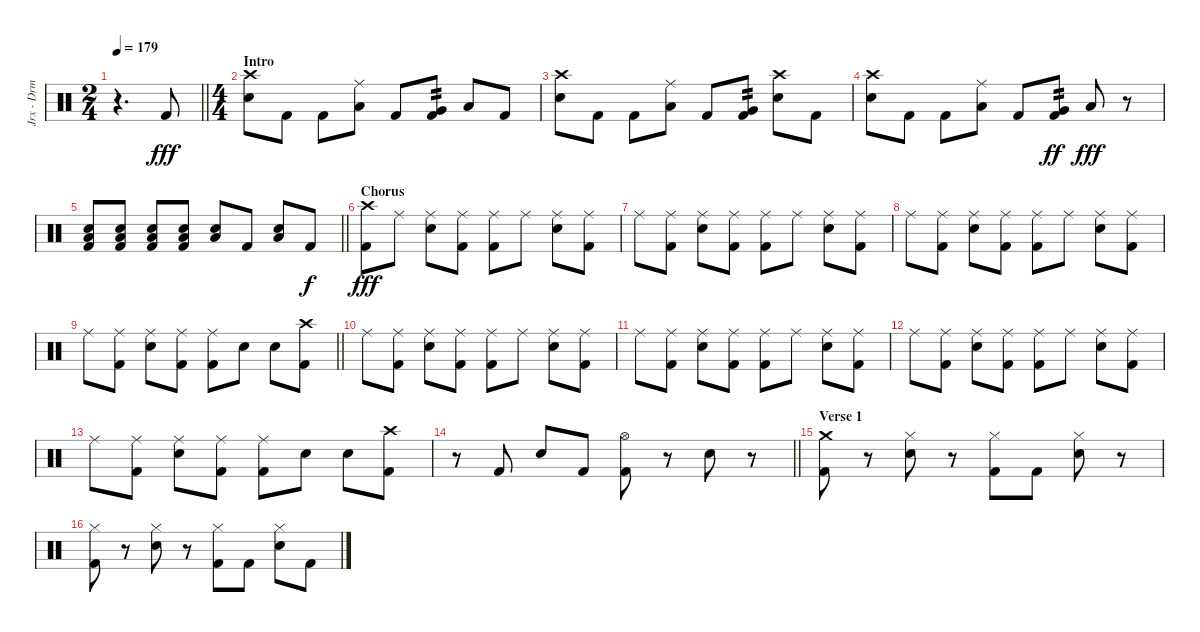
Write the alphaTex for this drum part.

\track ("Jrx - Drm" "Jrx - Drm") {instrument percussion}
\staff {score}
\articulation defaults
\ts (2 4)
\tempo 179
\clef neutral
\barLineRight lightlight
\ks c
r.4{d dy fff} "Kick (hit) 2".8 |
\ts (4 4)
\section ("" "Intro")
("Snare (hit) 2" "Crash high (hit)").8 "Kick (hit) 2".8 "Kick (hit) 2".8 ("Low Tom (hit)" "Ride (middle)").8 "Kick (hit) 2".8 ("Kick (hit) 2" "Very Low Tom (hit)").8{tp 2} "Low Floor Tom (hit)".8 "Kick (hit) 2".8 |
("Snare (hit) 2" "Crash high (hit)").8 "Kick (hit) 2".8 "Kick (hit) 2".8 ("Low Tom (hit)" "Ride (middle)").8 "Kick (hit) 2".8 ("Kick (hit) 2" "Very Low Tom (hit)").8{tp 2} ("Snare (hit) 2" "Crash high (hit)").8 "Kick (hit) 2".8 |
("Snare (hit) 2" "Crash high (hit)").8 "Kick (hit) 2".8 "Kick (hit) 2".8 ("Low Tom (hit)" "Ride (middle)").8 "Kick (hit) 2".8 ("Kick (hit) 2" "Very Low Tom (hit)").8{tp 2 dy ff} "Low Floor Tom (hit)".8{dy fff} r.8 |
\barLineRight lightlight
("Snare (hit) 2" "Kick (hit) 2" "Low Floor Tom (hit)").8 ("Snare (hit) 2" "Kick (hit) 2" "Low Floor Tom (hit)").8 ("Snare (hit) 2" "Kick (hit) 2" "Low Floor Tom (hit)").8 ("Snare (hit) 2" "Kick (hit) 2" "Low Floor Tom (hit)").8 ("Snare (hit) 2" "Low Floor Tom (hit)").8 "Kick (hit) 2".8 ("Snare (hit) 2" "Low Floor Tom (hit)").8 "Kick (hit) 2".8{dy f} |
\section ("" "Chorus")
("Kick (hit) 2" "Crash high (hit)").8{dy fff} "Ride (middle)".8 ("Snare (hit) 2" "Ride (middle)").8 ("Kick (hit) 2" "Ride (middle)").8 ("Kick (hit) 2" "Ride (middle)").8 "Ride (middle)".8 ("Snare (hit) 2" "Ride (middle)").8 ("Kick (hit) 2" "Ride (middle)").8 |
"Ride (middle)".8 ("Kick (hit) 2" "Ride (middle)").8 ("Snare (hit) 2" "Ride (middle)").8 ("Kick (hit) 2" "Ride (middle)").8 ("Kick (hit) 2" "Ride (middle)").8 "Ride (middle)".8 ("Snare (hit) 2" "Ride (middle)").8 ("Kick (hit) 2" "Ride (middle)").8 |
"Ride (middle)".8 ("Kick (hit) 2" "Ride (middle)").8 ("Snare (hit) 2" "Ride (middle)").8 ("Kick (hit) 2" "Ride (middle)").8 ("Kick (hit) 2" "Ride (middle)").8 "Ride (middle)".8 ("Snare (hit) 2" "Ride (middle)").8 ("Kick (hit) 2" "Ride (middle)").8 |
\barLineRight lightlight "Ride (middle)".8
("Kick (hit) 2" "Ride (middle)").8 ("Snare (hit) 2" "Ride (middle)").8 ("Kick (hit) 2" "Ride (middle)").8 ("Kick (hit) 2" "Ride (middle)").8 "Snare (hit) 2".8 "Snare (hit) 2".8 ("Kick (hit) 2" "Crash high (hit)").8 |
"Ride (middle)".8 ("Kick (hit) 2" "Ride (middle)").8 ("Snare (hit) 2" "Ride (middle)").8 ("Kick (hit) 2" "Ride (middle)").8 ("Kick (hit) 2" "Ride (middle)").8 "Ride (middle)".8 ("Snare (hit) 2" "Ride (middle)").8 ("Kick (hit) 2" "Ride (middle)").8 |
"Ride (middle)".8 ("Kick (hit) 2" "Ride (middle)").8 ("Snare (hit) 2" "Ride (middle)").8 ("Kick (hit) 2" "Ride (middle)").8 ("Kick (hit) 2" "Ride (middle)").8 "Ride (middle)".8 ("Snare (hit) 2" "Ride (middle)").8 ("Kick (hit) 2" "Ride (middle)").8 |
"Ride (middle)".8 ("Kick (hit) 2" "Ride (middle)").8 ("Snare (hit) 2" "Ride (middle)").8 ("Kick (hit) 2" "Ride (middle)").8 ("Kick (hit) 2" "Ride (middle)").8 "Ride (middle)".8 ("Snare (hit) 2" "Ride (middle)").8 ("Kick (hit) 2" "Ride (middle)").8 |
"Ride (middle)".8 ("Kick (hit) 2" "Ride (middle)").8 ("Snare (hit) 2" "Ride (middle)").8 ("Kick (hit) 2" "Ride (middle)").8 ("Kick (hit) 2" "Ride (middle)").8 "Snare (hit) 2".8 "Snare (hit) 2".8 ("Kick (hit) 2" "Crash high (hit)").8 |
\barLineRight lightlight
r.8 "Kick (hit) 2".8 "Snare (hit) 2".8 "Kick (hit) 2".8 ("Hi-Hat (open)" "Kick (hit) 2").8 r.8 "Snare (hit) 2".8 r.8 |
\section ("" "Verse 1")
("Kick (hit) 2" "Crash medium (hit)").8 r.8 ("Hi-Hat (closed)" "Snare (hit) 2").8 r.8 ("Hi-Hat (closed)" "Kick (hit) 2").8 "Kick (hit) 2".8 ("Hi-Hat (closed)" "Snare (hit) 2").8 r.8 |
("Hi-Hat (closed)" "Kick (hit) 2").8 r.8 ("Hi-Hat (closed)" "Snare (hit) 2").8 r.8 ("Hi-Hat (closed)" "Kick (hit) 2").8 "Kick (hit) 2".8 ("Hi-Hat (closed)" "Snare (hit) 2").8 "Kick (hit) 2".8
